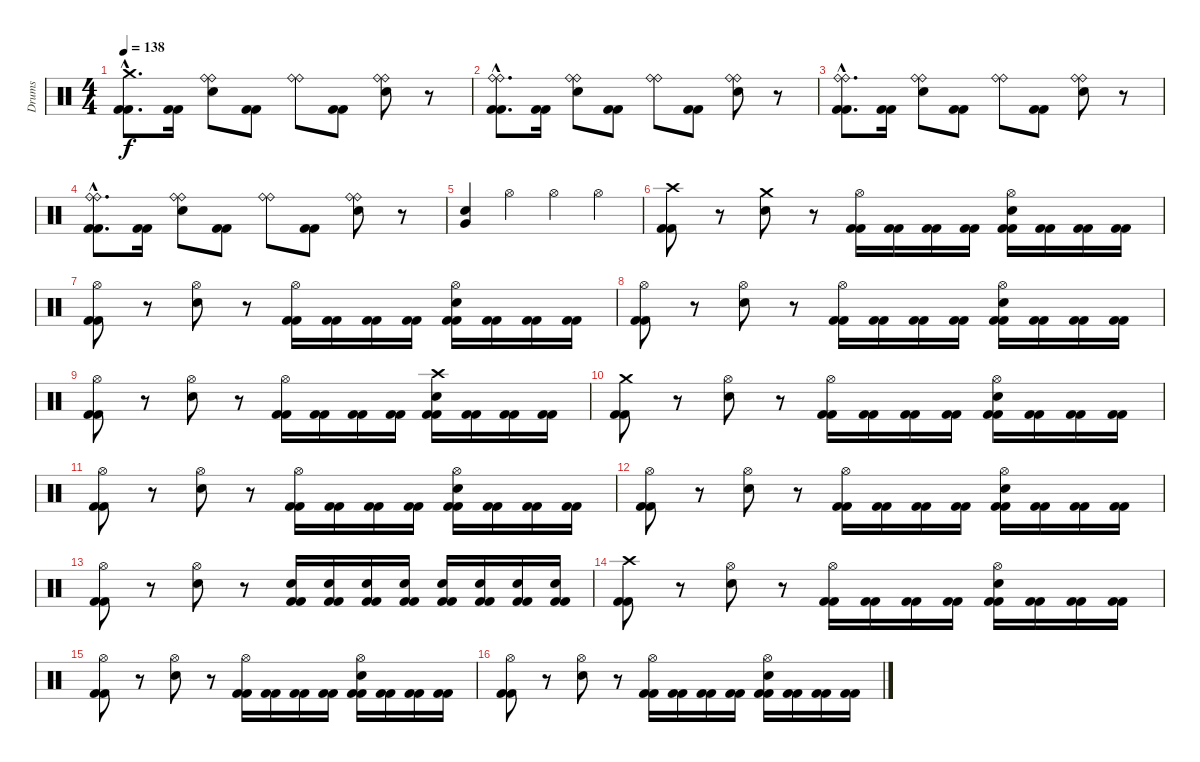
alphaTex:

\track ("Drums" "Drums") {instrument percussion}
\staff {score}
\articulation defaults
\ts (4 4)
\tempo 138
\clef neutral
\ks c
("Crash medium (hit)"{hac} "Kick (hit) 2"{hac} "Kick (hit) 2"{hac}).8{d dy f} ("Kick (hit) 2" "Kick (hit) 2").16 ("Ride (bell)" "Ride (bell)" "Electric Snare (hit)").8 ("Kick (hit) 2" "Kick (hit) 2").8 ("Ride (bell)" "Ride (bell)").8 ("Kick (hit) 2" "Kick (hit) 2").8 ("Ride (bell)" "Ride (bell)" "Electric Snare (hit)").8 r.8 |
("Ride (bell)"{hac} "Ride (bell)"{hac} "Kick (hit) 2"{hac} "Kick (hit) 2"{hac}).8{d} ("Kick (hit) 2" "Kick (hit) 2").16 ("Ride (bell)" "Ride (bell)" "Electric Snare (hit)").8 ("Kick (hit) 2" "Kick (hit) 2").8 ("Ride (bell)" "Ride (bell)").8 ("Kick (hit) 2" "Kick (hit) 2").8 ("Ride (bell)" "Ride (bell)" "Electric Snare (hit)").8 r.8 |
("Ride (bell)"{hac} "Ride (bell)"{hac} "Kick (hit) 2"{hac} "Kick (hit) 2"{hac}).8{d} ("Kick (hit) 2" "Kick (hit) 2").16 ("Ride (bell)" "Ride (bell)" "Electric Snare (hit)").8 ("Kick (hit) 2" "Kick (hit) 2").8 ("Ride (bell)" "Ride (bell)").8 ("Kick (hit) 2" "Kick (hit) 2").8 ("Ride (bell)" "Ride (bell)" "Electric Snare (hit)").8 r.8 |
("Ride (bell)"{hac} "Ride (bell)"{hac} "Kick (hit) 2"{hac} "Kick (hit) 2"{hac}).8{d} ("Kick (hit) 2" "Kick (hit) 2").16 ("Ride (bell)" "Ride (bell)" "Electric Snare (hit)").8 ("Kick (hit) 2" "Kick (hit) 2").8 ("Ride (bell)" "Ride (bell)").8 ("Kick (hit) 2" "Kick (hit) 2").8 ("Ride (bell)" "Ride (bell)" "Electric Snare (hit)").8 r.8 |
("Very Low Tom (hit)" "Electric Snare (hit)").4 "Hi-Hat (open)".4 "Hi-Hat (open)".4 "Hi-Hat (open)".4 |
("Crash high (hit)" "Kick (hit) 2" "Kick (hit) 2").8 r.8 ("Crash medium (hit)" "Electric Snare (hit)").8 r.8 ("Hi-Hat (open)" "Kick (hit) 2" "Kick (hit) 2").16 ("Kick (hit) 2" "Kick (hit) 2").16 ("Kick (hit) 2" "Kick (hit) 2").16 ("Kick (hit) 2" "Kick (hit) 2").16 ("Hi-Hat (open)" "Electric Snare (hit)" "Kick (hit) 2" "Kick (hit) 2").16 ("Kick (hit) 2" "Kick (hit) 2").16 ("Kick (hit) 2" "Kick (hit) 2").16 ("Kick (hit) 2" "Kick (hit) 2").16 |
("Hi-Hat (open)" "Kick (hit) 2" "Kick (hit) 2").8 r.8 ("Hi-Hat (open)" "Electric Snare (hit)").8 r.8 ("Hi-Hat (open)" "Kick (hit) 2" "Kick (hit) 2").16 ("Kick (hit) 2" "Kick (hit) 2").16 ("Kick (hit) 2" "Kick (hit) 2").16 ("Kick (hit) 2" "Kick (hit) 2").16 ("Hi-Hat (open)" "Electric Snare (hit)" "Kick (hit) 2" "Kick (hit) 2").16 ("Kick (hit) 2" "Kick (hit) 2").16 ("Kick (hit) 2" "Kick (hit) 2").16 ("Kick (hit) 2" "Kick (hit) 2").16 |
("Hi-Hat (open)" "Kick (hit) 2" "Kick (hit) 2").8 r.8 ("Hi-Hat (open)" "Electric Snare (hit)").8 r.8 ("Hi-Hat (open)" "Kick (hit) 2" "Kick (hit) 2").16 ("Kick (hit) 2" "Kick (hit) 2").16 ("Kick (hit) 2" "Kick (hit) 2").16 ("Kick (hit) 2" "Kick (hit) 2").16 ("Hi-Hat (open)" "Electric Snare (hit)" "Kick (hit) 2" "Kick (hit) 2").16 ("Kick (hit) 2" "Kick (hit) 2").16 ("Kick (hit) 2" "Kick (hit) 2").16 ("Kick (hit) 2" "Kick (hit) 2").16 |
("Hi-Hat (open)" "Kick (hit) 2" "Kick (hit) 2").8 r.8 ("Hi-Hat (open)" "Electric Snare (hit)").8 r.8 ("Hi-Hat (open)" "Kick (hit) 2" "Kick (hit) 2").16 ("Kick (hit) 2" "Kick (hit) 2").16 ("Kick (hit) 2" "Kick (hit) 2").16 ("Kick (hit) 2" "Kick (hit) 2").16 ("Crash high (hit)" "Electric Snare (hit)" "Kick (hit) 2" "Kick (hit) 2").16 ("Kick (hit) 2" "Kick (hit) 2").16 ("Kick (hit) 2" "Kick (hit) 2").16 ("Kick (hit) 2" "Kick (hit) 2").16 |
("Crash medium (hit)" "Kick (hit) 2" "Kick (hit) 2").8 r.8 ("Hi-Hat (open)" "Electric Snare (hit)").8 r.8 ("Hi-Hat (open)" "Kick (hit) 2" "Kick (hit) 2").16 ("Kick (hit) 2" "Kick (hit) 2").16 ("Kick (hit) 2" "Kick (hit) 2").16 ("Kick (hit) 2" "Kick (hit) 2").16 ("Hi-Hat (open)" "Electric Snare (hit)" "Kick (hit) 2" "Kick (hit) 2").16 ("Kick (hit) 2" "Kick (hit) 2").16 ("Kick (hit) 2" "Kick (hit) 2").16 ("Kick (hit) 2" "Kick (hit) 2").16 |
("Hi-Hat (open)" "Kick (hit) 2" "Kick (hit) 2").8 r.8 ("Hi-Hat (open)" "Electric Snare (hit)").8 r.8 ("Hi-Hat (open)" "Kick (hit) 2" "Kick (hit) 2").16 ("Kick (hit) 2" "Kick (hit) 2").16 ("Kick (hit) 2" "Kick (hit) 2").16 ("Kick (hit) 2" "Kick (hit) 2").16 ("Hi-Hat (open)" "Electric Snare (hit)" "Kick (hit) 2" "Kick (hit) 2").16 ("Kick (hit) 2" "Kick (hit) 2").16 ("Kick (hit) 2" "Kick (hit) 2").16 ("Kick (hit) 2" "Kick (hit) 2").16 |
("Hi-Hat (open)" "Kick (hit) 2" "Kick (hit) 2").8 r.8 ("Hi-Hat (open)" "Electric Snare (hit)").8 r.8 ("Hi-Hat (open)" "Kick (hit) 2" "Kick (hit) 2").16 ("Kick (hit) 2" "Kick (hit) 2").16 ("Kick (hit) 2" "Kick (hit) 2").16 ("Kick (hit) 2" "Kick (hit) 2").16 ("Hi-Hat (open)" "Electric Snare (hit)" "Kick (hit) 2" "Kick (hit) 2").16 ("Kick (hit) 2" "Kick (hit) 2").16 ("Kick (hit) 2" "Kick (hit) 2").16 ("Kick (hit) 2" "Kick (hit) 2").16 |
("Hi-Hat (open)" "Kick (hit) 2" "Kick (hit) 2").8 r.8 ("Hi-Hat (open)" "Electric Snare (hit)").8 r.8 ("Electric Snare (hit)" "Kick (hit) 2" "Kick (hit) 2").16 ("Electric Snare (hit)" "Kick (hit) 2" "Kick (hit) 2").16 ("Electric Snare (hit)" "Kick (hit) 2" "Kick (hit) 2").16 ("Electric Snare (hit)" "Kick (hit) 2" "Kick (hit) 2").16 ("Electric Snare (hit)" "Kick (hit) 2" "Kick (hit) 2").16 ("Electric Snare (hit)" "Kick (hit) 2" "Kick (hit) 2").16 ("Electric Snare (hit)" "Kick (hit) 2" "Kick (hit) 2").16 ("Electric Snare (hit)" "Kick (hit) 2" "Kick (hit) 2").16 |
("Crash high (hit)" "Kick (hit) 2" "Kick (hit) 2").8 r.8 ("Hi-Hat (open)" "Electric Snare (hit)").8 r.8 ("Hi-Hat (open)" "Kick (hit) 2" "Kick (hit) 2").16 ("Kick (hit) 2" "Kick (hit) 2").16 ("Kick (hit) 2" "Kick (hit) 2").16 ("Kick (hit) 2" "Kick (hit) 2").16 ("Hi-Hat (open)" "Electric Snare (hit)" "Kick (hit) 2" "Kick (hit) 2").16 ("Kick (hit) 2" "Kick (hit) 2").16 ("Kick (hit) 2" "Kick (hit) 2").16 ("Kick (hit) 2" "Kick (hit) 2").16 |
("Hi-Hat (open)" "Kick (hit) 2" "Kick (hit) 2").8 r.8 ("Hi-Hat (open)" "Electric Snare (hit)").8 r.8 ("Hi-Hat (open)" "Kick (hit) 2" "Kick (hit) 2").16 ("Kick (hit) 2" "Kick (hit) 2").16 ("Kick (hit) 2" "Kick (hit) 2").16 ("Kick (hit) 2" "Kick (hit) 2").16 ("Hi-Hat (open)" "Electric Snare (hit)" "Kick (hit) 2" "Kick (hit) 2").16 ("Kick (hit) 2" "Kick (hit) 2").16 ("Kick (hit) 2" "Kick (hit) 2").16 ("Kick (hit) 2" "Kick (hit) 2").16 |
("Hi-Hat (open)" "Kick (hit) 2" "Kick (hit) 2").8 r.8 ("Hi-Hat (open)" "Electric Snare (hit)").8 r.8 ("Hi-Hat (open)" "Kick (hit) 2" "Kick (hit) 2").16 ("Kick (hit) 2" "Kick (hit) 2").16 ("Kick (hit) 2" "Kick (hit) 2").16 ("Kick (hit) 2" "Kick (hit) 2").16 ("Hi-Hat (open)" "Electric Snare (hit)" "Kick (hit) 2" "Kick (hit) 2").16 ("Kick (hit) 2" "Kick (hit) 2").16 ("Kick (hit) 2" "Kick (hit) 2").16 ("Kick (hit) 2" "Kick (hit) 2").16
